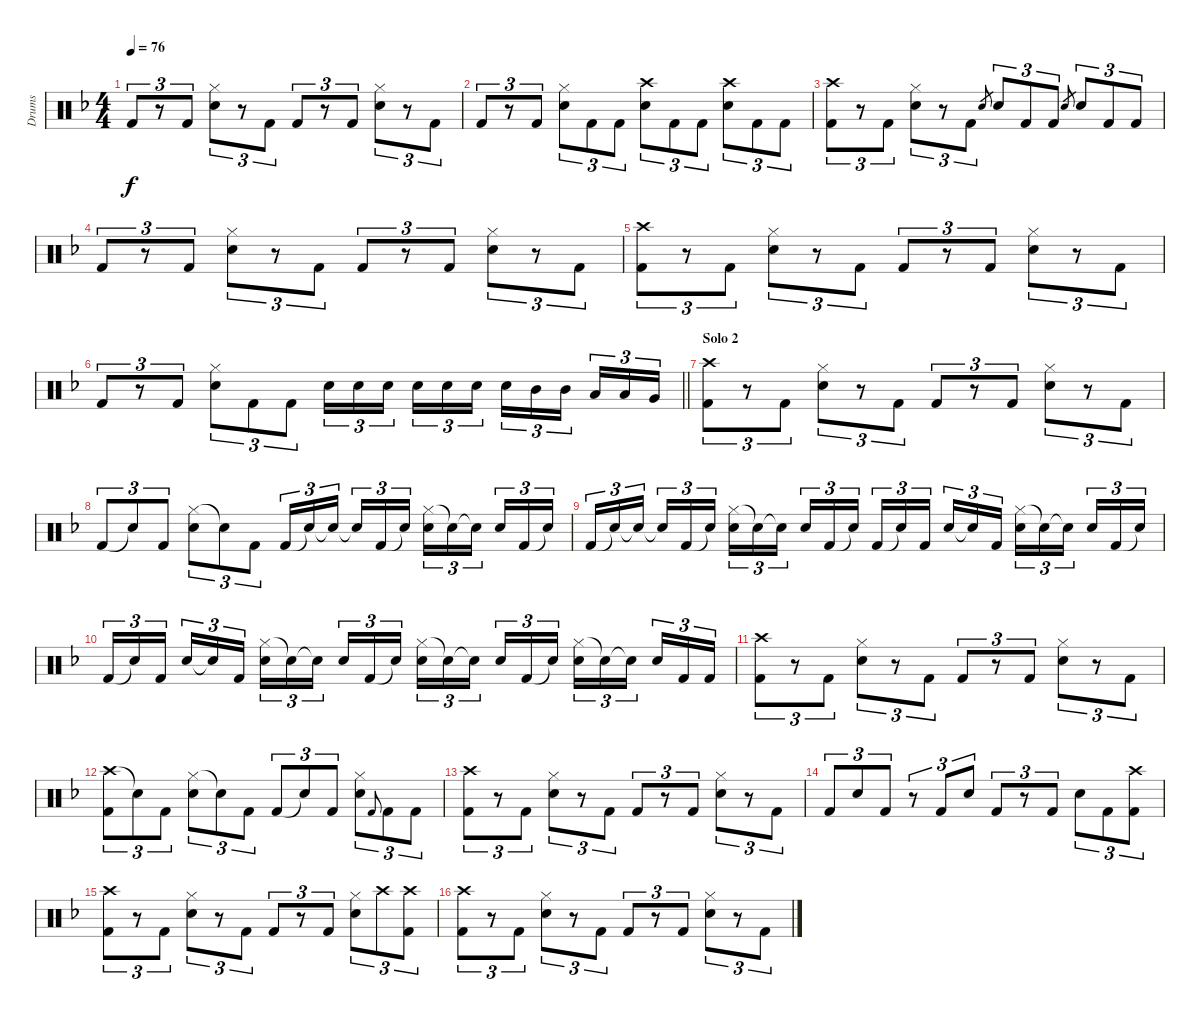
\track ("Drums" "Drums") {instrument percussion}
\staff {score}
\articulation defaults
\ts (4 4)
\tempo 76
\clef neutral
\ks f "Kick (hit) 2".8{tu (3 2) dy f}
r.8{tu (3 2)} "Kick (hit) 2".8{tu (3 2)} ("Hi-Hat (closed)" "Electric Snare (hit)").8{tu (3 2)} r.8{tu (3 2)} "Kick (hit) 2".8{tu (3 2)} "Kick (hit) 2".8{tu (3 2)} r.8{tu (3 2)} "Kick (hit) 2".8{tu (3 2)} ("Hi-Hat (closed)" "Electric Snare (hit)").8{tu (3 2)} r.8{tu (3 2)} "Kick (hit) 2".8{tu (3 2)} |
"Kick (hit) 2".8{tu (3 2)} r.8{tu (3 2)} "Kick (hit) 2".8{tu (3 2)} ("Hi-Hat (closed)" "Electric Snare (hit)").8{tu (3 2)} "Kick (hit) 2".8{tu (3 2)} "Kick (hit) 2".8{tu (3 2)} ("Crash high (hit)" "Electric Snare (hit)").8{tu (3 2)} "Kick (hit) 2".8{tu (3 2)} "Kick (hit) 2".8{tu (3 2)} ("Crash high (hit)" "Electric Snare (hit)").8{tu (3 2)} "Kick (hit) 2".8{tu (3 2)} "Kick (hit) 2".8{tu (3 2)} |
("Crash high (hit)" "Kick (hit) 2").8{tu (3 2)} r.8{tu (3 2)} "Kick (hit) 2".8{tu (3 2)} ("Hi-Hat (closed)" "Electric Snare (hit)").8{tu (3 2)} r.8{tu (3 2)} "Kick (hit) 2".8{tu (3 2)} "Electric Snare (hit)".8{gr} "Electric Snare (hit)".8{tu (3 2)} "Kick (hit) 2".8{tu (3 2)} "Kick (hit) 2".8{tu (3 2)} "Electric Snare (hit)".8{gr} "Electric Snare (hit)".8{tu (3 2)} "Kick (hit) 2".8{tu (3 2)} "Kick (hit) 2".8{tu (3 2)} |
"Kick (hit) 2".8{tu (3 2)} r.8{tu (3 2)} "Kick (hit) 2".8{tu (3 2)} ("Hi-Hat (closed)" "Electric Snare (hit)").8{tu (3 2)} r.8{tu (3 2)} "Kick (hit) 2".8{tu (3 2)} "Kick (hit) 2".8{tu (3 2)} r.8{tu (3 2)} "Kick (hit) 2".8{tu (3 2)} ("Hi-Hat (closed)" "Electric Snare (hit)").8{tu (3 2)} r.8{tu (3 2)} "Kick (hit) 2".8{tu (3 2)} |
("Crash high (hit)" "Kick (hit) 2").8{tu (3 2)} r.8{tu (3 2)} "Kick (hit) 2".8{tu (3 2)} ("Hi-Hat (closed)" "Electric Snare (hit)").8{tu (3 2)} r.8{tu (3 2)} "Kick (hit) 2".8{tu (3 2)} "Kick (hit) 2".8{tu (3 2)} r.8{tu (3 2)} "Kick (hit) 2".8{tu (3 2)} ("Hi-Hat (closed)" "Electric Snare (hit)").8{tu (3 2)} r.8{tu (3 2)} "Kick (hit) 2".8{tu (3 2)} |
\barLineRight lightlight "Kick (hit) 2".8{tu (3 2)}
r.8{tu (3 2)} "Kick (hit) 2".8{tu (3 2)} ("Hi-Hat (closed)" "Electric Snare (hit)").8{tu (3 2)} "Kick (hit) 2".8{tu (3 2)} "Kick (hit) 2".8{tu (3 2)} "Electric Snare (hit)".16{tu (3 2)} "Electric Snare (hit)".16{tu (3 2)} "Electric Snare (hit)".16{tu (3 2) beam splitsecondary} "Electric Snare (hit)".16{tu (3 2)} "Electric Snare (hit)".16{tu (3 2)} "Electric Snare (hit)".16{tu (3 2)} "Electric Snare (hit)".16{tu (3 2)} "Mid Tom (hit)".16{tu (3 2)} "Mid Tom (hit)".16{tu (3 2) beam splitsecondary} "Low Tom (hit)".16{tu (3 2)} "Low Tom (hit)".16{tu (3 2)} "Very Low Tom (hit)".16{tu (3 2)} |
\section ("" "Solo 2")
("Crash high (hit)" "Kick (hit) 2").8{tu (3 2)} r.8{tu (3 2)} "Kick (hit) 2".8{tu (3 2)} ("Hi-Hat (closed)" "Electric Snare (hit)").8{tu (3 2)} r.8{tu (3 2)} "Kick (hit) 2".8{tu (3 2)} "Kick (hit) 2".8{tu (3 2)} r.8{tu (3 2)} "Kick (hit) 2".8{tu (3 2)} ("Hi-Hat (closed)" "Electric Snare (hit)").8{tu (3 2)} r.8{tu (3 2)} "Kick (hit) 2".8{tu (3 2)} |
"Kick (hit) 2".8{tu (3 2)} "Snare (hit)"{t}.8{tu (3 2)} "Kick (hit) 2".8{tu (3 2)} ("Hi-Hat (closed)" "Electric Snare (hit)").8{tu (3 2)} "Snare (hit)"{t}.8{tu (3 2)} "Kick (hit) 2".8{tu (3 2)} "Kick (hit) 2".16{tu (3 2)} "Snare (hit)"{t}.16{tu (3 2)} "Snare (hit)"{t}.16{tu (3 2) beam splitsecondary} "Snare (hit)"{t}.16{tu (3 2)} "Kick (hit) 2".16{tu (3 2)} "Snare (hit)"{t}.16{tu (3 2)} ("Hi-Hat (closed)" "Electric Snare (hit)").16{tu (3 2)} "Snare (hit)"{t}.16{tu (3 2)} "Snare (hit)"{t}.16{tu (3 2) beam splitsecondary} "Electric Snare (hit)".16{tu (3 2)} "Kick (hit) 2".16{tu (3 2)} "Snare (hit)"{t}.16{tu (3 2)} |
"Kick (hit) 2".16{tu (3 2)} "Snare (hit)"{t}.16{tu (3 2)} "Snare (hit)"{t}.16{tu (3 2) beam splitsecondary} "Snare (hit)"{t}.16{tu (3 2)} "Kick (hit) 2".16{tu (3 2)} "Snare (hit)"{t}.16{tu (3 2)} ("Hi-Hat (closed)" "Electric Snare (hit)").16{tu (3 2)} "Snare (hit)"{t}.16{tu (3 2)} "Snare (hit)"{t}.16{tu (3 2) beam splitsecondary} "Electric Snare (hit)".16{tu (3 2)} "Kick (hit) 2".16{tu (3 2)} "Snare (hit)"{t}.16{tu (3 2)} "Kick (hit) 2".16{tu (3 2)} "Snare (hit)"{t}.16{tu (3 2)} "Kick (hit) 2".16{tu (3 2) beam splitsecondary} "Electric Snare (hit)".16{tu (3 2)} "Snare (hit)"{t}.16{tu (3 2)} "Kick (hit) 2".16{tu (3 2)} ("Hi-Hat (closed)" "Electric Snare (hit)").16{tu (3 2)} "Snare (hit)"{t}.16{tu (3 2)} "Snare (hit)"{t}.16{tu (3 2) beam splitsecondary} "Electric Snare (hit)".16{tu (3 2)} "Kick (hit) 2".16{tu (3 2)} "Snare (hit)"{t}.16{tu (3 2)} |
"Kick (hit) 2".16{tu (3 2)} "Snare (hit)"{t}.16{tu (3 2)} "Kick (hit) 2".16{tu (3 2) beam splitsecondary} "Electric Snare (hit)".16{tu (3 2)} "Snare (hit)"{t}.16{tu (3 2)} "Kick (hit) 2".16{tu (3 2)} ("Hi-Hat (closed)" "Electric Snare (hit)").16{tu (3 2)} "Snare (hit)"{t}.16{tu (3 2)} "Snare (hit)"{t}.16{tu (3 2) beam splitsecondary} "Electric Snare (hit)".16{tu (3 2)} "Kick (hit) 2".16{tu (3 2)} "Snare (hit)"{t}.16{tu (3 2)} ("Hi-Hat (closed)" "Electric Snare (hit)").16{tu (3 2)} "Snare (hit)"{t}.16{tu (3 2)} "Snare (hit)"{t}.16{tu (3 2) beam splitsecondary} "Electric Snare (hit)".16{tu (3 2)} "Kick (hit) 2".16{tu (3 2)} "Snare (hit)"{t}.16{tu (3 2)} ("Hi-Hat (closed)" "Electric Snare (hit)").16{tu (3 2)} "Snare (hit)"{t}.16{tu (3 2)} "Snare (hit)"{t}.16{tu (3 2) beam splitsecondary} "Electric Snare (hit)".16{tu (3 2)} "Kick (hit) 2".16{tu (3 2)} "Kick (hit) 2".16{tu (3 2)} |
("Crash high (hit)" "Kick (hit) 2").8{tu (3 2)} r.8{tu (3 2)} "Kick (hit) 2".8{tu (3 2)} ("Hi-Hat (closed)" "Electric Snare (hit)").8{tu (3 2)} r.8{tu (3 2)} "Kick (hit) 2".8{tu (3 2)} "Kick (hit) 2".8{tu (3 2)} r.8{tu (3 2)} "Kick (hit) 2".8{tu (3 2)} ("Hi-Hat (closed)" "Electric Snare (hit)").8{tu (3 2)} r.8{tu (3 2)} "Kick (hit) 2".8{tu (3 2)} |
("Crash high (hit)" "Kick (hit) 2").8{tu (3 2)} "Snare (hit)"{t}.8{tu (3 2)} "Kick (hit) 2".8{tu (3 2)} ("Hi-Hat (closed)" "Electric Snare (hit)").8{tu (3 2)} "Snare (hit)"{t}.8{tu (3 2)} "Kick (hit) 2".8{tu (3 2)} "Kick (hit) 2".8{tu (3 2)} "Snare (hit)"{t}.8{tu (3 2)} "Kick (hit) 2".8{tu (3 2)} ("Hi-Hat (closed)" "Electric Snare (hit)").8{tu (3 2)} "Kick (hit) 2".8{gr onbeat} "Kick (hit) 2".8{tu (3 2)} "Kick (hit) 2".8{tu (3 2)} |
("Crash high (hit)" "Kick (hit) 2").8{tu (3 2)} r.8{tu (3 2)} "Kick (hit) 2".8{tu (3 2)} ("Hi-Hat (closed)" "Electric Snare (hit)").8{tu (3 2)} r.8{tu (3 2)} "Kick (hit) 2".8{tu (3 2)} "Kick (hit) 2".8{tu (3 2)} r.8{tu (3 2)} "Kick (hit) 2".8{tu (3 2)} ("Hi-Hat (closed)" "Electric Snare (hit)").8{tu (3 2)} r.8{tu (3 2)} "Kick (hit) 2".8{tu (3 2)} |
"Kick (hit) 2".8{tu (3 2)} "Electric Snare (hit)".8{tu (3 2)} "Kick (hit) 2".8{tu (3 2)} r.8{tu (3 2)} "Kick (hit) 2".8{tu (3 2)} "Electric Snare (hit)".8{tu (3 2)} "Kick (hit) 2".8{tu (3 2)} r.8{tu (3 2)} "Kick (hit) 2".8{tu (3 2)} "Electric Snare (hit)".8{tu (3 2)} "Kick (hit) 2".8{tu (3 2)} ("Crash high (hit)" "Kick (hit) 2").8{tu (3 2)} |
("Crash high (hit)" "Kick (hit) 2").8{tu (3 2)} r.8{tu (3 2)} "Kick (hit) 2".8{tu (3 2)} ("Hi-Hat (closed)" "Electric Snare (hit)").8{tu (3 2)} r.8{tu (3 2)} "Kick (hit) 2".8{tu (3 2)} "Kick (hit) 2".8{tu (3 2)} r.8{tu (3 2)} "Kick (hit) 2".8{tu (3 2)} ("Hi-Hat (closed)" "Electric Snare (hit)").8{tu (3 2)} "Crash high (hit)".8{tu (3 2)} ("Crash high (hit)" "Kick (hit) 2").8{tu (3 2)} |
("Crash high (hit)" "Kick (hit) 2").8{tu (3 2)} r.8{tu (3 2)} "Kick (hit) 2".8{tu (3 2)} ("Hi-Hat (closed)" "Electric Snare (hit)").8{tu (3 2)} r.8{tu (3 2)} "Kick (hit) 2".8{tu (3 2)} "Kick (hit) 2".8{tu (3 2)} r.8{tu (3 2)} "Kick (hit) 2".8{tu (3 2)} ("Hi-Hat (closed)" "Electric Snare (hit)").8{tu (3 2)} r.8{tu (3 2)} "Kick (hit) 2".8{tu (3 2)}
